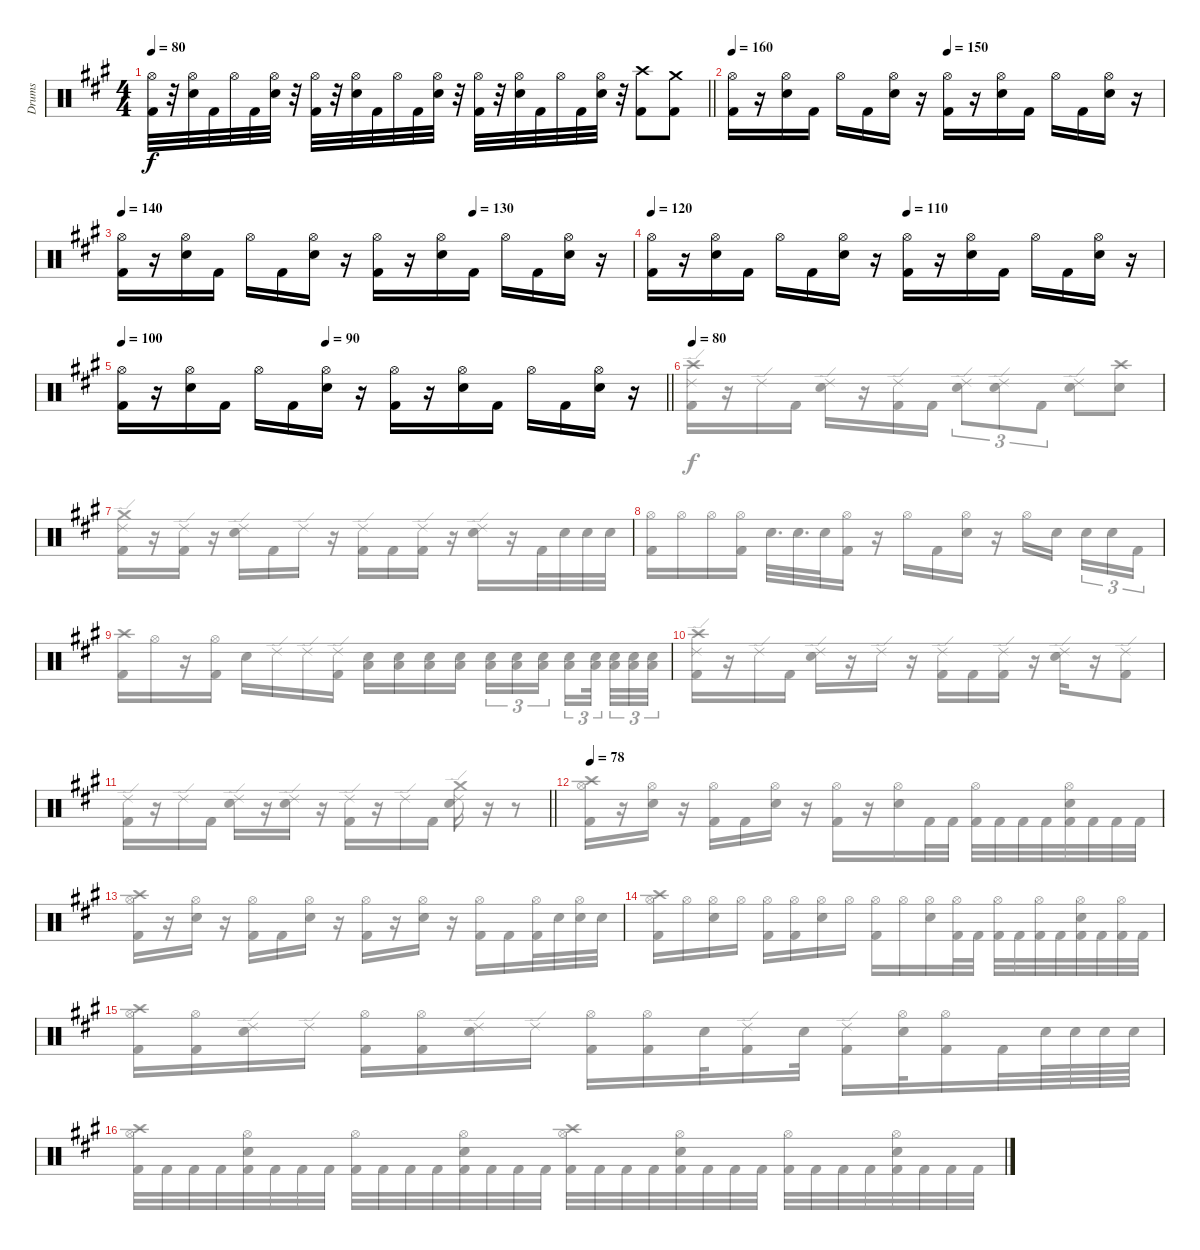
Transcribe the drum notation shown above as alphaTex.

\track ("Drums" "Drums") {instrument percussion}
\staff {score}
\articulation defaults
\voice
\ts (4 4)
\tempo 80
\clef neutral
\barLineRight lightlight
\ks f#minor
("Kick (hit) 2" "Hi-Hat (open)").32{dy f} r.32 ("Electric Snare (hit)" "Hi-Hat (open)").32 "Kick (hit) 2".32 "Hi-Hat (open)".32 "Kick (hit) 2".32 ("Electric Snare (hit)" "Hi-Hat (open)").32 r.32 ("Kick (hit) 2" "Hi-Hat (open)").32 r.32 ("Electric Snare (hit)" "Hi-Hat (open)").32 "Kick (hit) 2".32 "Hi-Hat (open)".32 "Kick (hit) 2".32 ("Electric Snare (hit)" "Hi-Hat (open)").32 r.32 ("Kick (hit) 2" "Hi-Hat (open)").32 r.32 ("Electric Snare (hit)" "Hi-Hat (open)").32 "Kick (hit) 2".32 "Hi-Hat (open)".32 "Kick (hit) 2".32 ("Electric Snare (hit)" "Hi-Hat (open)").32 r.32 ("Kick (hit) 2" "Crash high (hit)").8 ("Kick (hit) 2" "Crash medium (hit)").8 |
\tempo 160
\tempo (150 0.5)
("Kick (hit) 2" "Hi-Hat (open)").16 r.16 ("Electric Snare (hit)" "Hi-Hat (open)").16 "Kick (hit) 2".16 "Hi-Hat (open)".16 "Kick (hit) 2".16 ("Electric Snare (hit)" "Hi-Hat (open)").16 r.16 ("Kick (hit) 2" "Hi-Hat (open)").16 r.16 ("Electric Snare (hit)" "Hi-Hat (open)").16 "Kick (hit) 2".16 "Hi-Hat (open)".16 "Kick (hit) 2".16 ("Electric Snare (hit)" "Hi-Hat (open)").16 r.16 |
\tempo 140
\tempo (130 0.6875)
("Kick (hit) 2" "Hi-Hat (open)").16 r.16 ("Electric Snare (hit)" "Hi-Hat (open)").16 "Kick (hit) 2".16 "Hi-Hat (open)".16 "Kick (hit) 2".16 ("Electric Snare (hit)" "Hi-Hat (open)").16 r.16 ("Kick (hit) 2" "Hi-Hat (open)").16 r.16 ("Electric Snare (hit)" "Hi-Hat (open)").16 "Kick (hit) 2".16 "Hi-Hat (open)".16 "Kick (hit) 2".16 ("Electric Snare (hit)" "Hi-Hat (open)").16 r.16 |
\tempo 120
\tempo (110 0.5)
("Kick (hit) 2" "Hi-Hat (open)").16 r.16 ("Electric Snare (hit)" "Hi-Hat (open)").16 "Kick (hit) 2".16 "Hi-Hat (open)".16 "Kick (hit) 2".16 ("Electric Snare (hit)" "Hi-Hat (open)").16 r.16 ("Kick (hit) 2" "Hi-Hat (open)").16 r.16 ("Electric Snare (hit)" "Hi-Hat (open)").16 "Kick (hit) 2".16 "Hi-Hat (open)".16 "Kick (hit) 2".16 ("Electric Snare (hit)" "Hi-Hat (open)").16 r.16 |
\tempo 100
\tempo (90 0.375)
\barLineRight lightlight
("Kick (hit) 2" "Hi-Hat (open)").16 r.16 ("Electric Snare (hit)" "Hi-Hat (open)").16 "Kick (hit) 2".16 "Hi-Hat (open)".16 "Kick (hit) 2".16 ("Electric Snare (hit)" "Hi-Hat (open)").16 r.16 ("Kick (hit) 2" "Hi-Hat (open)").16 r.16 ("Electric Snare (hit)" "Hi-Hat (open)").16 "Kick (hit) 2".16 "Hi-Hat (open)".16 "Kick (hit) 2".16 ("Electric Snare (hit)" "Hi-Hat (open)").16 r.16 |
\tempo 80
|
|
|
|
|
\barLineRight lightlight
|
\tempo 78
|
|
|
|
\voice
\clef neutral
\ottava regular
\simile none
\barLineRight lightlight
\ks f#minor
|
|
|
|
\barLineRight lightlight
|
("Kick (hit) 2" "Crash high (hit)" "Ride (edge) 2").16 r.16 "Ride (edge) 2".16 "Kick (hit) 2".16 ("Electric Snare (hit)" "Ride (edge) 2").16 r.16 ("Kick (hit) 2" "Ride (edge) 2").16 "Kick (hit) 2".16 ("Electric Snare (hit)" "Ride (edge) 2").8{tu (3 2)} ("Electric Snare (hit)" "Ride (edge) 2").8{tu (3 2)} "Kick (hit) 2".8{tu (3 2)} ("Electric Snare (hit)" "Ride (edge) 2").8 ("Electric Snare (hit)" "Crash high (hit)").8 |
("Kick (hit) 2" "Crash medium (hit)" "Ride (edge) 2").16 r.16 ("Kick (hit) 2" "Ride (edge) 2").16 r.16 ("Electric Snare (hit)" "Ride (edge) 2").16 "Kick (hit) 2".16 "Ride (edge) 2".16 r.16 ("Kick (hit) 2" "Ride (edge) 2").16 "Kick (hit) 2".16 ("Kick (hit) 2" "Ride (edge) 2").16 r.16 ("Electric Snare (hit)" "Ride (edge) 2").16 r.16 "Kick (hit) 2".32 "Electric Snare (hit)".32 "Electric Snare (hit)".32 "Electric Snare (hit)".32 |
("Kick (hit) 2" "Hi-Hat (open)").16 "Hi-Hat (open)".16 "Hi-Hat (open)".16 ("Kick (hit) 2" "Hi-Hat (open)").16 "Electric Snare (hit)".32{d} "Electric Snare (hit)".32{d} "Electric Snare (hit)".32 ("Kick (hit) 2" "Hi-Hat (open)").16 r.16 "Hi-Hat (open)".16 "Kick (hit) 2".16 ("Electric Snare (hit)" "Hi-Hat (open)").16 r.16 "Hi-Hat (open)".16 "Electric Snare (hit)".16{beam splitsecondary} "Electric Snare (hit)".16{tu (3 2)} "Electric Snare (hit)".16{tu (3 2)} "Kick (hit) 2".16{tu (3 2)} |
("Kick (hit) 2" "Crash high (hit)").16 "Hi-Hat (open)".16 r.16 ("Kick (hit) 2" "Hi-Hat (open)").16 "Electric Snare (hit)".16 "Ride (edge) 2".16 "Ride (edge) 2".16 ("Kick (hit) 2" "Ride (edge) 2").16 ("Low Floor Tom (hit)" "Electric Snare (hit)").16 ("Low Floor Tom (hit)" "Electric Snare (hit)").16 ("Low Floor Tom (hit)" "Electric Snare (hit)").16 ("Low Floor Tom (hit)" "Electric Snare (hit)").16 ("Low Floor Tom (hit)" "Electric Snare (hit)").16{tu (3 2)} ("Low Floor Tom (hit)" "Electric Snare (hit)").16{tu (3 2)} ("Low Floor Tom (hit)" "Electric Snare (hit)").16{tu (3 2) beam splitsecondary} ("Low Floor Tom (hit)" "Electric Snare (hit)").16{tu (3 2)} ("Low Floor Tom (hit)" "Electric Snare (hit)").32{tu (3 2) beam splitsecondary} ("Low Floor Tom (hit)" "Electric Snare (hit)").32{tu (3 2)} ("Low Floor Tom (hit)" "Electric Snare (hit)").32{tu (3 2)} ("Low Floor Tom (hit)" "Electric Snare (hit)").32{tu (3 2)} |
("Kick (hit) 2" "Crash high (hit)" "Ride (edge) 2").16 r.16 "Ride (edge) 2".16 "Kick (hit) 2".16 ("Electric Snare (hit)" "Ride (edge) 2").16 r.16 "Ride (edge) 2".16 r.16 ("Kick (hit) 2" "Ride (edge) 2").16 "Kick (hit) 2".16 ("Kick (hit) 2" "Ride (edge) 2").16 r.16 ("Electric Snare (hit)" "Ride (edge) 2").16 r.16 ("Kick (hit) 2" "Ride (edge) 2").8 |
\barLineRight lightlight
("Kick (hit) 2" "Ride (edge) 2").16 r.16 "Ride (edge) 2".16 "Kick (hit) 2".16 ("Electric Snare (hit)" "Ride (edge) 2").16 r.16 ("Electric Snare (hit)" "Ride (edge) 2").16 r.16 ("Kick (hit) 2" "Ride (edge) 2").16 r.16 "Ride (edge) 2".16 "Kick (hit) 2".16 ("Electric Snare (hit)" "Crash medium (hit)" "Ride (edge) 2").16 r.16 r.8 |
("Kick (hit) 2" "Crash high (hit)" "Hi-Hat (open)").16 r.16 ("Electric Snare (hit)" "Hi-Hat (open)").16 r.16 ("Kick (hit) 2" "Hi-Hat (open)").16 "Kick (hit) 2".16 ("Electric Snare (hit)" "Hi-Hat (open)").16 r.16 ("Kick (hit) 2" "Hi-Hat (open)").16 r.16 ("Electric Snare (hit)" "Hi-Hat (open)").16 "Kick (hit) 2".32 "Kick (hit) 2".32 ("Kick (hit) 2" "Hi-Hat (open)").32 "Kick (hit) 2".32 "Kick (hit) 2".32 "Kick (hit) 2".32 ("Kick (hit) 2" "Electric Snare (hit)" "Hi-Hat (open)").32 "Kick (hit) 2".32 "Kick (hit) 2".32 "Kick (hit) 2".32 |
("Kick (hit) 2" "Crash high (hit)" "Hi-Hat (open)").16 r.16 ("Electric Snare (hit)" "Hi-Hat (open)").16 r.16 ("Kick (hit) 2" "Hi-Hat (open)").16 "Kick (hit) 2".16 ("Electric Snare (hit)" "Hi-Hat (open)").16 r.16 ("Kick (hit) 2" "Hi-Hat (open)").16 r.16 ("Electric Snare (hit)" "Hi-Hat (open)").16 r.16 ("Kick (hit) 2" "Hi-Hat (open)").16 "Kick (hit) 2".16 ("Kick (hit) 2" "Hi-Hat (open)").32 "Electric Snare (hit)".32 ("Electric Snare (hit)" "Hi-Hat (open)").32 "Electric Snare (hit)".32 |
("Kick (hit) 2" "Crash high (hit)" "Hi-Hat (open)").16 "Hi-Hat (open)".16 ("Electric Snare (hit)" "Hi-Hat (open)").16 "Hi-Hat (open)".16 ("Kick (hit) 2" "Hi-Hat (open)").16 ("Kick (hit) 2" "Hi-Hat (open)").16 ("Electric Snare (hit)" "Hi-Hat (open)").16 "Hi-Hat (open)".16 ("Kick (hit) 2" "Hi-Hat (open)").16 "Hi-Hat (open)".16 ("Electric Snare (hit)" "Hi-Hat (open)").16 ("Kick (hit) 2" "Hi-Hat (open)").32 "Kick (hit) 2".32 ("Kick (hit) 2" "Hi-Hat (open)").32 "Kick (hit) 2".32 ("Kick (hit) 2" "Hi-Hat (open)").32 "Kick (hit) 2".32 ("Kick (hit) 2" "Electric Snare (hit)" "Hi-Hat (open)").32 "Kick (hit) 2".32 ("Kick (hit) 2" "Hi-Hat (open)").32 "Kick (hit) 2".32 |
("Kick (hit) 2" "Crash high (hit)" "Hi-Hat (open)").16 ("Kick (hit) 2" "Hi-Hat (open)").16 ("Electric Snare (hit)" "Ride (edge) 2").16 "Ride (edge) 2".16 ("Kick (hit) 2" "Hi-Hat (open)").16 ("Kick (hit) 2" "Hi-Hat (open)").16 ("Electric Snare (hit)" "Ride (edge) 2").16 "Ride (edge) 2".16 ("Kick (hit) 2" "Hi-Hat (open)").16 ("Kick (hit) 2" "Hi-Hat (open)").16 "Electric Snare (hit)".32 ("Kick (hit) 2" "Ride (edge) 2").16 "Electric Snare (hit)".32 ("Kick (hit) 2" "Ride (edge) 2").16 ("Electric Snare (hit)" "Hi-Hat (open)").32 ("Kick (hit) 2" "Hi-Hat (open)").16 "Kick (hit) 2".32 "Electric Snare (hit)".64 "Electric Snare (hit)".64 "Electric Snare (hit)".64 "Electric Snare (hit)".64 |
("Kick (hit) 2" "Crash high (hit)" "Hi-Hat (open)").32 "Kick (hit) 2".32 "Kick (hit) 2".32 "Kick (hit) 2".32 ("Kick (hit) 2" "Electric Snare (hit)" "Hi-Hat (open)").32 "Kick (hit) 2".32 "Kick (hit) 2".32 "Kick (hit) 2".32 ("Kick (hit) 2" "Hi-Hat (open)").32 "Kick (hit) 2".32 "Kick (hit) 2".32 "Kick (hit) 2".32 ("Kick (hit) 2" "Electric Snare (hit)" "Hi-Hat (open)").32 "Kick (hit) 2".32 "Kick (hit) 2".32 "Kick (hit) 2".32 ("Kick (hit) 2" "Crash high (hit)" "Hi-Hat (open)").32 "Kick (hit) 2".32 "Kick (hit) 2".32 "Kick (hit) 2".32 ("Kick (hit) 2" "Electric Snare (hit)" "Hi-Hat (open)").32 "Kick (hit) 2".32 "Kick (hit) 2".32 "Kick (hit) 2".32 ("Kick (hit) 2" "Hi-Hat (open)").32 "Kick (hit) 2".32 "Kick (hit) 2".32 "Kick (hit) 2".32 ("Kick (hit) 2" "Electric Snare (hit)" "Hi-Hat (open)").32 "Kick (hit) 2".32 "Kick (hit) 2".32 "Kick (hit) 2".32
